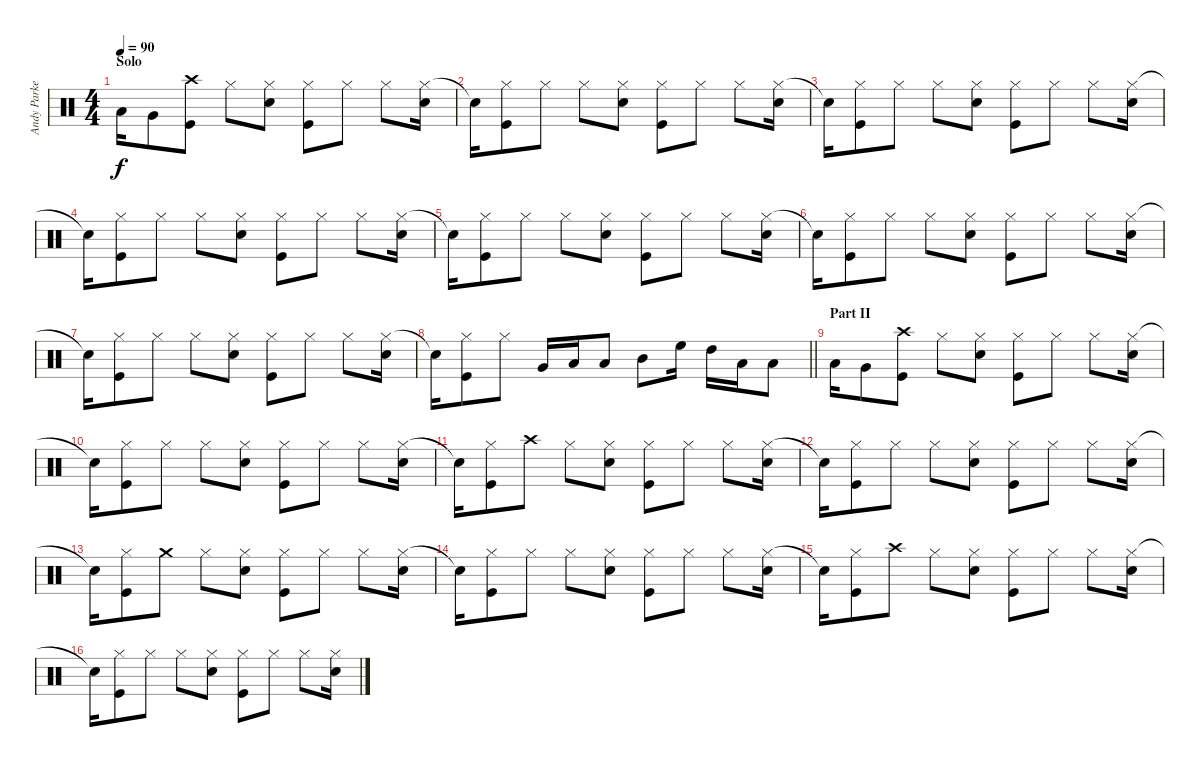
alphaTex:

\track ("Andy Parker" "Andy Parke") {instrument percussion}
\staff {score}
\articulation defaults
\ts (4 4)
\section ("" "Solo")
\tempo 90
\clef neutral
\ks c "Low Tom (hit)".16{dy f} "Very Low Tom (hit)".8
("Crash high (hit)" "Kick (hit)").8 "Hi-Hat (closed)".8 ("Hi-Hat (closed)" "Snare (hit) 2").8 ("Hi-Hat (closed)" "Kick (hit)").8 "Hi-Hat (closed)".8 "Hi-Hat (closed)".8 ("Hi-Hat (closed)" "Snare (hit) 2").16 |
"Snare (hit)"{t}.16 ("Hi-Hat (closed)" "Kick (hit)").8 "Hi-Hat (closed)".8 "Hi-Hat (closed)".8 ("Hi-Hat (closed)" "Snare (hit) 2").8 ("Hi-Hat (closed)" "Kick (hit)").8 "Hi-Hat (closed)".8 "Hi-Hat (closed)".8 ("Hi-Hat (closed)" "Snare (hit) 2").16 |
"Snare (hit)"{t}.16 ("Hi-Hat (closed)" "Kick (hit)").8 "Hi-Hat (closed)".8 "Hi-Hat (closed)".8 ("Hi-Hat (closed)" "Snare (hit) 2").8 ("Hi-Hat (closed)" "Kick (hit)").8 "Hi-Hat (closed)".8 "Hi-Hat (closed)".8 ("Hi-Hat (closed)" "Snare (hit) 2").16 |
"Snare (hit)"{t}.16 ("Hi-Hat (closed)" "Kick (hit)").8 "Hi-Hat (closed)".8 "Hi-Hat (closed)".8 ("Hi-Hat (closed)" "Snare (hit) 2").8 ("Hi-Hat (closed)" "Kick (hit)").8 "Hi-Hat (closed)".8 "Hi-Hat (closed)".8 ("Hi-Hat (closed)" "Snare (hit) 2").16 |
"Snare (hit)"{t}.16 ("Hi-Hat (closed)" "Kick (hit)").8 "Hi-Hat (closed)".8 "Hi-Hat (closed)".8 ("Hi-Hat (closed)" "Snare (hit) 2").8 ("Hi-Hat (closed)" "Kick (hit)").8 "Hi-Hat (closed)".8 "Hi-Hat (closed)".8 ("Hi-Hat (closed)" "Snare (hit) 2").16 |
"Snare (hit)"{t}.16 ("Hi-Hat (closed)" "Kick (hit)").8 "Hi-Hat (closed)".8 "Hi-Hat (closed)".8 ("Hi-Hat (closed)" "Snare (hit) 2").8 ("Hi-Hat (closed)" "Kick (hit)").8 "Hi-Hat (closed)".8 "Hi-Hat (closed)".8 ("Hi-Hat (closed)" "Snare (hit) 2").16 |
"Snare (hit)"{t}.16 ("Hi-Hat (closed)" "Kick (hit)").8 "Hi-Hat (closed)".8 "Hi-Hat (closed)".8 ("Hi-Hat (closed)" "Snare (hit) 2").8 ("Hi-Hat (closed)" "Kick (hit)").8 "Hi-Hat (closed)".8 "Hi-Hat (closed)".8 ("Hi-Hat (closed)" "Snare (hit) 2").16 |
\barLineRight lightlight "Snare (hit)"{t}.16
("Hi-Hat (closed)" "Kick (hit)").8 "Hi-Hat (closed)".8 "Very Low Tom (hit)".16 "Low Tom (hit)".16 "Low Floor Tom (hit)".8 "Mid Tom (hit)".8 "High Floor Tom (hit)".16 "High Tom (hit)".16 "Low Tom (hit)".16 "Low Floor Tom (hit)".8 |
\section ("" "Part II")
"Low Tom (hit)".16 "Very Low Tom (hit)".8 ("Crash high (hit)" "Kick (hit)").8 "Hi-Hat (closed)".8 ("Hi-Hat (closed)" "Snare (hit) 2").8 ("Hi-Hat (closed)" "Kick (hit)").8 "Hi-Hat (closed)".8 "Hi-Hat (closed)".8 ("Hi-Hat (closed)" "Snare (hit) 2").16 |
"Snare (hit)"{t}.16 ("Hi-Hat (closed)" "Kick (hit)").8 "Hi-Hat (closed)".8 "Hi-Hat (closed)".8 ("Hi-Hat (closed)" "Snare (hit) 2").8 ("Hi-Hat (closed)" "Kick (hit)").8 "Hi-Hat (closed)".8 "Hi-Hat (closed)".8 ("Hi-Hat (closed)" "Snare (hit) 2").16 |
"Snare (hit)"{t}.16 ("Hi-Hat (closed)" "Kick (hit)").8 "Crash high (hit)".8 "Hi-Hat (closed)".8 ("Hi-Hat (closed)" "Snare (hit) 2").8 ("Hi-Hat (closed)" "Kick (hit)").8 "Hi-Hat (closed)".8 "Hi-Hat (closed)".8 ("Hi-Hat (closed)" "Snare (hit) 2").16 |
"Snare (hit)"{t}.16 ("Hi-Hat (closed)" "Kick (hit)").8 "Hi-Hat (closed)".8 "Hi-Hat (closed)".8 ("Hi-Hat (closed)" "Snare (hit) 2").8 ("Hi-Hat (closed)" "Kick (hit)").8 "Hi-Hat (closed)".8 "Hi-Hat (closed)".8 ("Hi-Hat (closed)" "Snare (hit) 2").16 |
"Snare (hit)"{t}.16 ("Hi-Hat (closed)" "Kick (hit)").8 "Crash medium (hit)".8 "Hi-Hat (closed)".8 ("Hi-Hat (closed)" "Snare (hit) 2").8 ("Hi-Hat (closed)" "Kick (hit)").8 "Hi-Hat (closed)".8 "Hi-Hat (closed)".8 ("Hi-Hat (closed)" "Snare (hit) 2").16 |
"Snare (hit)"{t}.16 ("Hi-Hat (closed)" "Kick (hit)").8 "Hi-Hat (closed)".8 "Hi-Hat (closed)".8 ("Hi-Hat (closed)" "Snare (hit) 2").8 ("Hi-Hat (closed)" "Kick (hit)").8 "Hi-Hat (closed)".8 "Hi-Hat (closed)".8 ("Hi-Hat (closed)" "Snare (hit) 2").16 |
"Snare (hit)"{t}.16 ("Hi-Hat (closed)" "Kick (hit)").8 "Crash high (hit)".8 "Hi-Hat (closed)".8 ("Hi-Hat (closed)" "Snare (hit) 2").8 ("Hi-Hat (closed)" "Kick (hit)").8 "Hi-Hat (closed)".8 "Hi-Hat (closed)".8 ("Hi-Hat (closed)" "Snare (hit) 2").16 |
"Snare (hit)"{t}.16 ("Hi-Hat (closed)" "Kick (hit)").8 "Hi-Hat (closed)".8 "Hi-Hat (closed)".8 ("Hi-Hat (closed)" "Snare (hit) 2").8 ("Hi-Hat (closed)" "Kick (hit)").8 "Hi-Hat (closed)".8 "Hi-Hat (closed)".8 ("Hi-Hat (closed)" "Snare (hit) 2").16
